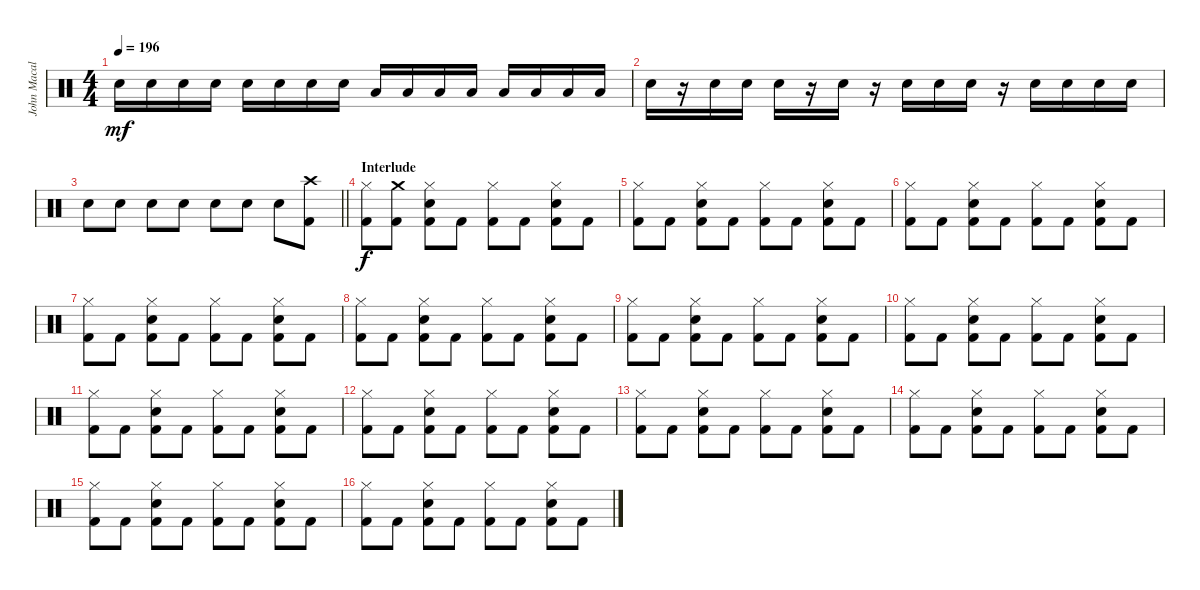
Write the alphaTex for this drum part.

\track ("John Macaluso" "John Macal") {instrument percussion}
\staff {score}
\articulation defaults
\ts (4 4)
\tempo 196
\clef neutral
\ks c "Electric Snare (hit)".16{dy mf} "Electric Snare (hit)".16 "Electric Snare (hit)".16 "Electric Snare (hit)".16 "Electric Snare (hit)".16 "Electric Snare (hit)".16 "Electric Snare (hit)".16 "Electric Snare (hit)".16 "Low Tom (hit)".16 "Low Tom (hit)".16 "Low Tom (hit)".16 "Low Tom (hit)".16 "Low Tom (hit)".16 "Low Tom (hit)".16 "Low Tom (hit)".16 "Low Tom (hit)".16
|
"Electric Snare (hit)".16 r.16 "Electric Snare (hit)".16 "Electric Snare (hit)".16 "Electric Snare (hit)".16 r.16 "Electric Snare (hit)".16 r.16 "Electric Snare (hit)".16 "Electric Snare (hit)".16 "Electric Snare (hit)".16 r.16 "Electric Snare (hit)".16 "Electric Snare (hit)".16 "Electric Snare (hit)".16 "Electric Snare (hit)".16 |
\barLineRight lightlight "Electric Snare (hit)".8 "Electric Snare (hit)".8 "Electric Snare (hit)".8 "Electric Snare (hit)".8 "Electric Snare (hit)".8 "Electric Snare (hit)".8 "Electric Snare (hit)".8
("Crash high (hit)" "Kick (hit) 2").8 |
\section ("" "Interlude")
("Hi-Hat (closed)" "Kick (hit) 2").8{dy f} ("Crash medium (hit)" "Kick (hit) 2").8 ("Electric Snare (hit)" "Hi-Hat (closed)" "Kick (hit) 2").8 "Kick (hit) 2".8 ("Hi-Hat (closed)" "Kick (hit) 2").8 "Kick (hit) 2".8 ("Electric Snare (hit)" "Hi-Hat (closed)" "Kick (hit) 2").8 "Kick (hit) 2".8 |
("Hi-Hat (closed)" "Kick (hit) 2").8 "Kick (hit) 2".8 ("Electric Snare (hit)" "Hi-Hat (closed)" "Kick (hit) 2").8 "Kick (hit) 2".8 ("Hi-Hat (closed)" "Kick (hit) 2").8 "Kick (hit) 2".8 ("Electric Snare (hit)" "Hi-Hat (closed)" "Kick (hit) 2").8 "Kick (hit) 2".8 |
("Hi-Hat (closed)" "Kick (hit) 2").8 "Kick (hit) 2".8 ("Electric Snare (hit)" "Hi-Hat (closed)" "Kick (hit) 2").8 "Kick (hit) 2".8 ("Hi-Hat (closed)" "Kick (hit) 2").8 "Kick (hit) 2".8 ("Electric Snare (hit)" "Hi-Hat (closed)" "Kick (hit) 2").8 "Kick (hit) 2".8 |
("Hi-Hat (closed)" "Kick (hit) 2").8 "Kick (hit) 2".8 ("Electric Snare (hit)" "Hi-Hat (closed)" "Kick (hit) 2").8 "Kick (hit) 2".8 ("Hi-Hat (closed)" "Kick (hit) 2").8 "Kick (hit) 2".8 ("Electric Snare (hit)" "Hi-Hat (closed)" "Kick (hit) 2").8 "Kick (hit) 2".8 |
("Hi-Hat (closed)" "Kick (hit) 2").8 "Kick (hit) 2".8 ("Electric Snare (hit)" "Hi-Hat (closed)" "Kick (hit) 2").8 "Kick (hit) 2".8 ("Hi-Hat (closed)" "Kick (hit) 2").8 "Kick (hit) 2".8 ("Electric Snare (hit)" "Hi-Hat (closed)" "Kick (hit) 2").8 "Kick (hit) 2".8 |
("Hi-Hat (closed)" "Kick (hit) 2").8 "Kick (hit) 2".8 ("Electric Snare (hit)" "Hi-Hat (closed)" "Kick (hit) 2").8 "Kick (hit) 2".8 ("Hi-Hat (closed)" "Kick (hit) 2").8 "Kick (hit) 2".8 ("Electric Snare (hit)" "Hi-Hat (closed)" "Kick (hit) 2").8 "Kick (hit) 2".8 |
("Hi-Hat (closed)" "Kick (hit) 2").8 "Kick (hit) 2".8 ("Electric Snare (hit)" "Hi-Hat (closed)" "Kick (hit) 2").8 "Kick (hit) 2".8 ("Hi-Hat (closed)" "Kick (hit) 2").8 "Kick (hit) 2".8 ("Electric Snare (hit)" "Hi-Hat (closed)" "Kick (hit) 2").8 "Kick (hit) 2".8 |
("Hi-Hat (closed)" "Kick (hit) 2").8 "Kick (hit) 2".8 ("Electric Snare (hit)" "Hi-Hat (closed)" "Kick (hit) 2").8 "Kick (hit) 2".8 ("Hi-Hat (closed)" "Kick (hit) 2").8 "Kick (hit) 2".8 ("Electric Snare (hit)" "Hi-Hat (closed)" "Kick (hit) 2").8 "Kick (hit) 2".8 |
("Hi-Hat (closed)" "Kick (hit) 2").8 "Kick (hit) 2".8 ("Electric Snare (hit)" "Hi-Hat (closed)" "Kick (hit) 2").8 "Kick (hit) 2".8 ("Hi-Hat (closed)" "Kick (hit) 2").8 "Kick (hit) 2".8 ("Electric Snare (hit)" "Hi-Hat (closed)" "Kick (hit) 2").8 "Kick (hit) 2".8 |
("Hi-Hat (closed)" "Kick (hit) 2").8 "Kick (hit) 2".8 ("Electric Snare (hit)" "Hi-Hat (closed)" "Kick (hit) 2").8 "Kick (hit) 2".8 ("Hi-Hat (closed)" "Kick (hit) 2").8 "Kick (hit) 2".8 ("Electric Snare (hit)" "Hi-Hat (closed)" "Kick (hit) 2").8 "Kick (hit) 2".8 |
("Hi-Hat (closed)" "Kick (hit) 2").8 "Kick (hit) 2".8 ("Electric Snare (hit)" "Hi-Hat (closed)" "Kick (hit) 2").8 "Kick (hit) 2".8 ("Hi-Hat (closed)" "Kick (hit) 2").8 "Kick (hit) 2".8 ("Electric Snare (hit)" "Hi-Hat (closed)" "Kick (hit) 2").8 "Kick (hit) 2".8 |
("Hi-Hat (closed)" "Kick (hit) 2").8 "Kick (hit) 2".8 ("Electric Snare (hit)" "Hi-Hat (closed)" "Kick (hit) 2").8 "Kick (hit) 2".8 ("Hi-Hat (closed)" "Kick (hit) 2").8 "Kick (hit) 2".8 ("Electric Snare (hit)" "Hi-Hat (closed)" "Kick (hit) 2").8 "Kick (hit) 2".8 |
("Hi-Hat (closed)" "Kick (hit) 2").8 "Kick (hit) 2".8 ("Electric Snare (hit)" "Hi-Hat (closed)" "Kick (hit) 2").8 "Kick (hit) 2".8 ("Hi-Hat (closed)" "Kick (hit) 2").8 "Kick (hit) 2".8 ("Electric Snare (hit)" "Hi-Hat (closed)" "Kick (hit) 2").8 "Kick (hit) 2".8
